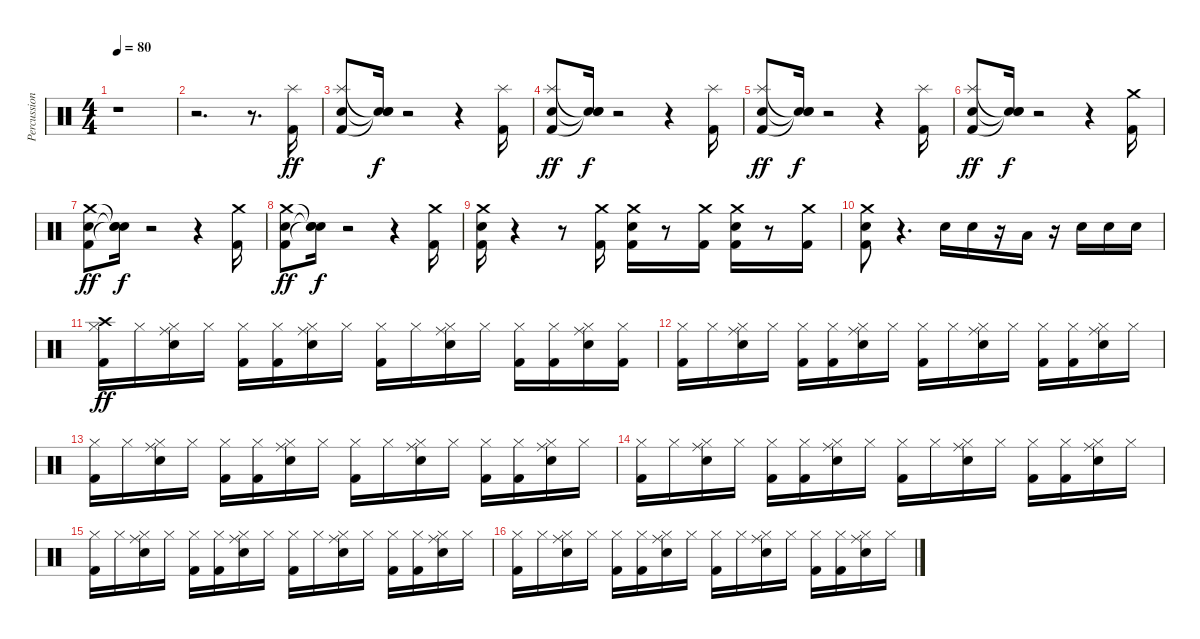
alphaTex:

\track ("Percussion" "Percussion") {instrument percussion}
\staff {score}
\articulation defaults
\ts (4 4)
\tempo 80
\clef neutral
\ks c
r.1{dy ff} |
r.2{d} r.8{d} ("Kick (hit) 2" "Splash (hit)").16 |
("Kick (hit) 2" "Snare (hit) 2" "Splash (hit)").8 ("Snare (hit)"{t} "Snare (hit)"{t} "Snare (hit)"{t}).16{dy f} r.2 r.4 ("Kick (hit) 2" "Splash (hit)").16 |
("Kick (hit) 2" "Snare (hit) 2" "Splash (hit)").8{dy ff} ("Snare (hit)"{t} "Snare (hit)"{t} "Snare (hit)"{t}).16{dy f} r.2 r.4 ("Kick (hit) 2" "Splash (hit)").16 |
("Kick (hit) 2" "Snare (hit) 2" "Splash (hit)").8{dy ff} ("Snare (hit)"{t} "Snare (hit)"{t} "Snare (hit)"{t}).16{dy f} r.2 r.4 ("Kick (hit) 2" "Splash (hit)").16 |
("Kick (hit) 2" "Snare (hit) 2" "Splash (hit)").8{dy ff} ("Snare (hit)"{t} "Snare (hit)"{t} "Snare (hit)"{t}).16{dy f} r.2 r.4 ("Kick (hit) 2" "Crash medium (hit)").16 |
("Kick (hit) 2" "Snare (hit) 2" "Crash medium (hit)").8{dy ff} ("Snare (hit)"{t} "Snare (hit)"{t} "Snare (hit)"{t}).16{dy f} r.2 r.4 ("Kick (hit) 2" "Crash medium (hit)").16 |
("Kick (hit) 2" "Snare (hit) 2" "Crash medium (hit)").8{dy ff} ("Snare (hit)"{t} "Snare (hit)"{t} "Snare (hit)"{t}).16{dy f} r.2 r.4 ("Kick (hit) 2" "Crash medium (hit)").16 |
("Kick (hit) 2" "Snare (hit) 2" "Crash medium (hit)").16 r.4 r.8 ("Kick (hit) 2" "Crash medium (hit)").16 ("Kick (hit) 2" "Snare (hit) 2" "Crash medium (hit)").16 r.8 ("Kick (hit) 2" "Crash medium (hit)").16 ("Kick (hit) 2" "Snare (hit) 2" "Crash medium (hit)").16 r.8 ("Kick (hit) 2" "Crash medium (hit)").16 |
("Kick (hit) 2" "Snare (hit) 2" "Crash medium (hit)").8 r.4{d} "Snare (hit) 2".16 "Snare (hit) 2".16 r.16 "Low Floor Tom (hit)".16 r.16 "Snare (hit) 2".16 "Snare (hit) 2".16 "Snare (hit) 2".16 |
("Kick (hit) 2" "Hi-Hat (closed)" "Crash high (hit)").16{dy ff} "Hi-Hat (closed)".16 ("Snare (hit) 2" "Hi-Hat (closed)" "Ride (middle)").16 "Hi-Hat (closed)".16 ("Kick (hit) 2" "Hi-Hat (closed)").16 ("Kick (hit) 2" "Hi-Hat (closed)").16 ("Snare (hit) 2" "Hi-Hat (closed)" "Ride (middle)").16 "Hi-Hat (closed)".16 ("Kick (hit) 2" "Hi-Hat (closed)").16 "Hi-Hat (closed)".16 ("Snare (hit) 2" "Hi-Hat (closed)" "Ride (middle)").16 "Hi-Hat (closed)".16 ("Kick (hit) 2" "Hi-Hat (closed)").16 ("Kick (hit) 2" "Hi-Hat (closed)").16 ("Snare (hit) 2" "Hi-Hat (closed)" "Ride (middle)").16 ("Kick (hit) 2" "Hi-Hat (closed)").16 |
("Kick (hit) 2" "Hi-Hat (closed)").16 "Hi-Hat (closed)".16 ("Snare (hit) 2" "Hi-Hat (closed)" "Ride (middle)").16 "Hi-Hat (closed)".16 ("Kick (hit) 2" "Hi-Hat (closed)").16 ("Kick (hit) 2" "Hi-Hat (closed)").16 ("Snare (hit) 2" "Hi-Hat (closed)" "Ride (middle)").16 "Hi-Hat (closed)".16 ("Kick (hit) 2" "Hi-Hat (closed)").16 "Hi-Hat (closed)".16 ("Snare (hit) 2" "Hi-Hat (closed)" "Ride (middle)").16 "Hi-Hat (closed)".16 ("Kick (hit) 2" "Hi-Hat (closed)").16 ("Kick (hit) 2" "Hi-Hat (closed)").16 ("Snare (hit) 2" "Hi-Hat (closed)" "Ride (middle)").16 "Hi-Hat (closed)".16 |
("Kick (hit) 2" "Hi-Hat (closed)").16 "Hi-Hat (closed)".16 ("Snare (hit) 2" "Hi-Hat (closed)" "Ride (middle)").16 "Hi-Hat (closed)".16 ("Kick (hit) 2" "Hi-Hat (closed)").16 ("Kick (hit) 2" "Hi-Hat (closed)").16 ("Snare (hit) 2" "Hi-Hat (closed)" "Ride (middle)").16 "Hi-Hat (closed)".16 ("Kick (hit) 2" "Hi-Hat (closed)").16 "Hi-Hat (closed)".16 ("Snare (hit) 2" "Hi-Hat (closed)" "Ride (middle)").16 "Hi-Hat (closed)".16 ("Kick (hit) 2" "Hi-Hat (closed)").16 ("Kick (hit) 2" "Hi-Hat (closed)").16 ("Snare (hit) 2" "Hi-Hat (closed)" "Ride (middle)").16 "Hi-Hat (closed)".16 |
("Kick (hit) 2" "Hi-Hat (closed)").16 "Hi-Hat (closed)".16 ("Snare (hit) 2" "Hi-Hat (closed)" "Ride (middle)").16 "Hi-Hat (closed)".16 ("Kick (hit) 2" "Hi-Hat (closed)").16 ("Kick (hit) 2" "Hi-Hat (closed)").16 ("Snare (hit) 2" "Hi-Hat (closed)" "Ride (middle)").16 "Hi-Hat (closed)".16 ("Kick (hit) 2" "Hi-Hat (closed)").16 "Hi-Hat (closed)".16 ("Snare (hit) 2" "Hi-Hat (closed)" "Ride (middle)").16 "Hi-Hat (closed)".16 ("Kick (hit) 2" "Hi-Hat (closed)").16 ("Kick (hit) 2" "Hi-Hat (closed)").16 ("Snare (hit) 2" "Hi-Hat (closed)" "Ride (middle)").16 "Hi-Hat (closed)".16 |
("Kick (hit) 2" "Hi-Hat (closed)").16 "Hi-Hat (closed)".16 ("Snare (hit) 2" "Hi-Hat (closed)" "Ride (middle)").16 "Hi-Hat (closed)".16 ("Kick (hit) 2" "Hi-Hat (closed)").16 ("Kick (hit) 2" "Hi-Hat (closed)").16 ("Snare (hit) 2" "Hi-Hat (closed)" "Ride (middle)").16 "Hi-Hat (closed)".16 ("Kick (hit) 2" "Hi-Hat (closed)").16 "Hi-Hat (closed)".16 ("Snare (hit) 2" "Hi-Hat (closed)" "Ride (middle)").16 "Hi-Hat (closed)".16 ("Kick (hit) 2" "Hi-Hat (closed)").16 ("Kick (hit) 2" "Hi-Hat (closed)").16 ("Snare (hit) 2" "Hi-Hat (closed)" "Ride (middle)").16 "Hi-Hat (closed)".16 |
("Kick (hit) 2" "Hi-Hat (closed)").16 "Hi-Hat (closed)".16 ("Snare (hit) 2" "Hi-Hat (closed)" "Ride (middle)").16 "Hi-Hat (closed)".16 ("Kick (hit) 2" "Hi-Hat (closed)").16 ("Kick (hit) 2" "Hi-Hat (closed)").16 ("Snare (hit) 2" "Hi-Hat (closed)" "Ride (middle)").16 "Hi-Hat (closed)".16 ("Kick (hit) 2" "Hi-Hat (closed)").16 "Hi-Hat (closed)".16 ("Snare (hit) 2" "Hi-Hat (closed)" "Ride (middle)").16 "Hi-Hat (closed)".16 ("Kick (hit) 2" "Hi-Hat (closed)").16 ("Kick (hit) 2" "Hi-Hat (closed)").16 ("Snare (hit) 2" "Hi-Hat (closed)" "Ride (middle)").16 "Hi-Hat (closed)".16
